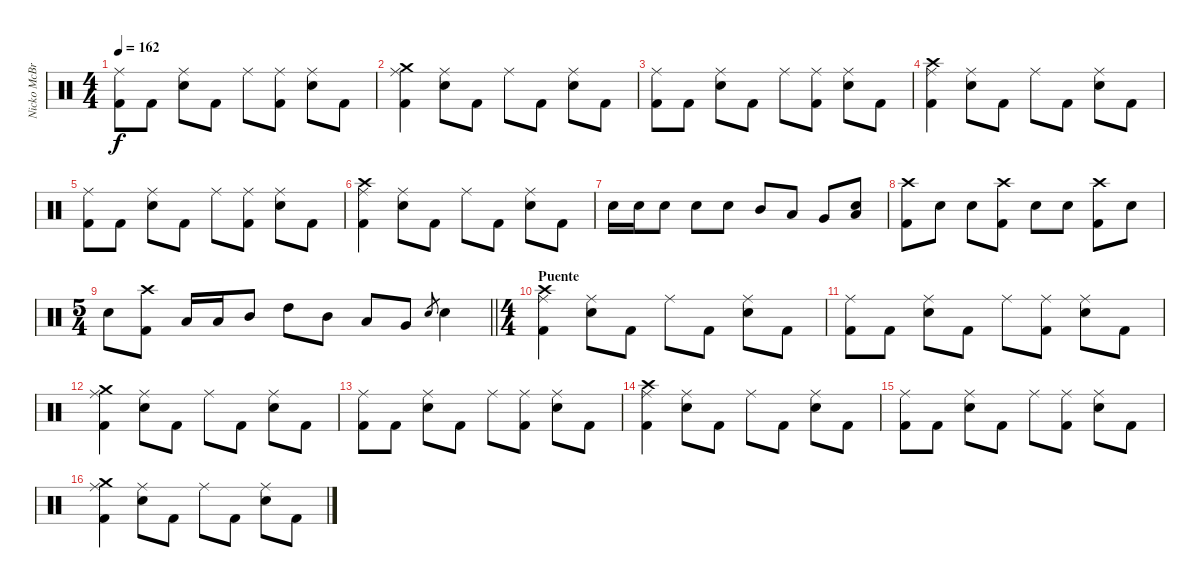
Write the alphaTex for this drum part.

\track ("Nicko McBrain" "Nicko McBr") {instrument percussion}
\staff {score}
\articulation defaults
\ts (4 4)
\tempo 162
\clef neutral
\ks c
("Kick (hit) 2" "Ride (middle)").8{dy f} "Kick (hit) 2".8 ("Electric Snare (hit)" "Ride (middle)").8 "Kick (hit) 2".8 "Ride (middle)".8 ("Kick (hit) 2" "Ride (middle)").8 ("Electric Snare (hit)" "Ride (middle)").8 "Kick (hit) 2".8 |
("Kick (hit) 2" "Ride (middle)" "Crash medium (hit)").4 ("Electric Snare (hit)" "Ride (middle)").8 "Kick (hit) 2".8 "Ride (middle)".8 "Kick (hit) 2".8 ("Electric Snare (hit)" "Ride (middle)").8 "Kick (hit) 2".8 |
("Kick (hit) 2" "Ride (middle)").8 "Kick (hit) 2".8 ("Electric Snare (hit)" "Ride (middle)").8 "Kick (hit) 2".8 "Ride (middle)".8 ("Kick (hit) 2" "Ride (middle)").8 ("Electric Snare (hit)" "Ride (middle)").8 "Kick (hit) 2".8 |
("Kick (hit) 2" "Ride (middle)" "Crash high (hit)").4 ("Electric Snare (hit)" "Ride (middle)").8 "Kick (hit) 2".8 "Ride (middle)".8 "Kick (hit) 2".8 ("Electric Snare (hit)" "Ride (middle)").8 "Kick (hit) 2".8 |
("Kick (hit) 2" "Ride (middle)").8 "Kick (hit) 2".8 ("Electric Snare (hit)" "Ride (middle)").8 "Kick (hit) 2".8 "Ride (middle)".8 ("Kick (hit) 2" "Ride (middle)").8 ("Electric Snare (hit)" "Ride (middle)").8 "Kick (hit) 2".8 |
("Kick (hit) 2" "Ride (middle)" "Crash high (hit)").4 ("Electric Snare (hit)" "Ride (middle)").8 "Kick (hit) 2".8 "Ride (middle)".8 "Kick (hit) 2".8 ("Electric Snare (hit)" "Ride (middle)").8 "Kick (hit) 2".8 |
"Electric Snare (hit)".16 "Electric Snare (hit)".16 "Electric Snare (hit)".8 "Electric Snare (hit)".8 "Electric Snare (hit)".8 "Mid Tom (hit)".8 "Low Tom (hit)".8 "Very Low Tom (hit)".8 ("Low Floor Tom (hit)" "Electric Snare (hit)").8 |
("Kick (hit) 2" "Crash high (hit)").8 "Electric Snare (hit)".8 "Electric Snare (hit)".8 ("Kick (hit) 2" "Crash high (hit)").8 "Electric Snare (hit)".8 "Electric Snare (hit)".8 ("Kick (hit) 2" "Crash high (hit)").8 "Electric Snare (hit)".8 |
\ts (5 4)
\barLineRight lightlight "Electric Snare (hit)".8
("Kick (hit) 2" "Crash high (hit)").8 "Low Tom (hit)".16 "Low Tom (hit)".16 "Mid Tom (hit)".8 "High Tom (hit)".8 "Mid Tom (hit)".8 "Low Tom (hit)".8 "Very Low Tom (hit)".8 "Electric Snare (hit)".8{gr} "Electric Snare (hit)".4 |
\ts (4 4)
\section ("" "Puente")
("Kick (hit) 2" "Ride (middle)" "Crash high (hit)").4 ("Electric Snare (hit)" "Ride (middle)").8 "Kick (hit) 2".8 "Ride (middle)".8 "Kick (hit) 2".8 ("Electric Snare (hit)" "Ride (middle)").8 "Kick (hit) 2".8 |
("Kick (hit) 2" "Ride (middle)").8 "Kick (hit) 2".8 ("Electric Snare (hit)" "Ride (middle)").8 "Kick (hit) 2".8 "Ride (middle)".8 ("Kick (hit) 2" "Ride (middle)").8 ("Electric Snare (hit)" "Ride (middle)").8 "Kick (hit) 2".8 |
("Kick (hit) 2" "Ride (middle)" "Crash medium (hit)").4 ("Electric Snare (hit)" "Ride (middle)").8 "Kick (hit) 2".8 "Ride (middle)".8 "Kick (hit) 2".8 ("Electric Snare (hit)" "Ride (middle)").8 "Kick (hit) 2".8 |
("Kick (hit) 2" "Ride (middle)").8 "Kick (hit) 2".8 ("Electric Snare (hit)" "Ride (middle)").8 "Kick (hit) 2".8 "Ride (middle)".8 ("Kick (hit) 2" "Ride (middle)").8 ("Electric Snare (hit)" "Ride (middle)").8 "Kick (hit) 2".8 |
("Kick (hit) 2" "Ride (middle)" "Crash high (hit)").4 ("Electric Snare (hit)" "Ride (middle)").8 "Kick (hit) 2".8 "Ride (middle)".8 "Kick (hit) 2".8 ("Electric Snare (hit)" "Ride (middle)").8 "Kick (hit) 2".8 |
("Kick (hit) 2" "Ride (middle)").8 "Kick (hit) 2".8 ("Electric Snare (hit)" "Ride (middle)").8 "Kick (hit) 2".8 "Ride (middle)".8 ("Kick (hit) 2" "Ride (middle)").8 ("Electric Snare (hit)" "Ride (middle)").8 "Kick (hit) 2".8 |
("Kick (hit) 2" "Ride (middle)" "Crash medium (hit)").4 ("Electric Snare (hit)" "Ride (middle)").8 "Kick (hit) 2".8 "Ride (middle)".8 "Kick (hit) 2".8 ("Electric Snare (hit)" "Ride (middle)").8 "Kick (hit) 2".8
